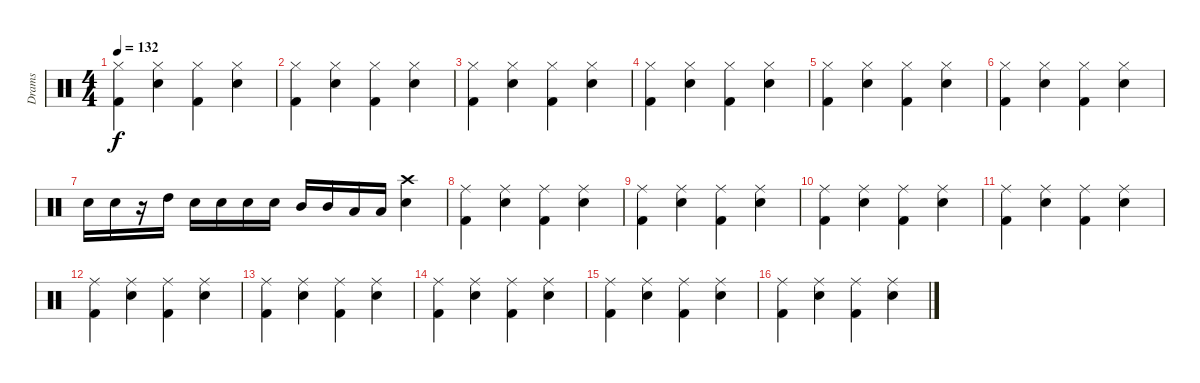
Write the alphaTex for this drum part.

\track ("Drams" "Drams") {instrument percussion}
\staff {score}
\articulation defaults
\ts (4 4)
\tempo 132
\clef neutral
\ks c
("Hi-Hat (closed)" "Kick (hit) 2").4{dy f} ("Hi-Hat (closed)" "Snare (hit) 2").4 ("Hi-Hat (closed)" "Kick (hit) 2").4 ("Hi-Hat (closed)" "Snare (hit) 2").4 |
("Hi-Hat (closed)" "Kick (hit) 2").4 ("Hi-Hat (closed)" "Snare (hit) 2").4 ("Hi-Hat (closed)" "Kick (hit) 2").4 ("Hi-Hat (closed)" "Snare (hit) 2").4 |
("Hi-Hat (closed)" "Kick (hit) 2").4 ("Hi-Hat (closed)" "Snare (hit) 2").4 ("Hi-Hat (closed)" "Kick (hit) 2").4 ("Hi-Hat (closed)" "Snare (hit) 2").4 |
("Hi-Hat (closed)" "Kick (hit) 2").4 ("Hi-Hat (closed)" "Snare (hit) 2").4 ("Hi-Hat (closed)" "Kick (hit) 2").4 ("Hi-Hat (closed)" "Snare (hit) 2").4 |
("Hi-Hat (closed)" "Kick (hit) 2").4 ("Hi-Hat (closed)" "Snare (hit) 2").4 ("Hi-Hat (closed)" "Kick (hit) 2").4 ("Hi-Hat (closed)" "Snare (hit) 2").4 |
("Hi-Hat (closed)" "Kick (hit) 2").4 ("Hi-Hat (closed)" "Snare (hit) 2").4 ("Hi-Hat (closed)" "Kick (hit) 2").4 ("Hi-Hat (closed)" "Snare (hit) 2").4 |
"Electric Snare (hit)".16 "Electric Snare (hit)".16 r.16 "High Tom (hit)".16 "Electric Snare (hit)".16 "Electric Snare (hit)".16 "Electric Snare (hit)".16 "Electric Snare (hit)".16 "Mid Tom (hit)".16 "Mid Tom (hit)".16 "Low Tom (hit)".16 "Low Tom (hit)".16 ("Crash high (hit)" "Snare (hit) 2").4 |
("Ride (middle)" "Kick (hit) 2").4 ("Ride (middle)" "Snare (hit) 2").4 ("Ride (middle)" "Kick (hit) 2").4 ("Ride (middle)" "Snare (hit) 2").4 |
("Ride (middle)" "Kick (hit) 2").4 ("Ride (middle)" "Snare (hit) 2").4 ("Ride (middle)" "Kick (hit) 2").4 ("Ride (middle)" "Snare (hit) 2").4 |
("Ride (middle)" "Kick (hit) 2").4 ("Ride (middle)" "Snare (hit) 2").4 ("Ride (middle)" "Kick (hit) 2").4 ("Ride (middle)" "Snare (hit) 2").4 |
("Ride (middle)" "Kick (hit) 2").4 ("Ride (middle)" "Snare (hit) 2").4 ("Ride (middle)" "Kick (hit) 2").4 ("Ride (middle)" "Snare (hit) 2").4 |
("Ride (middle)" "Kick (hit) 2").4 ("Ride (middle)" "Snare (hit) 2").4 ("Ride (middle)" "Kick (hit) 2").4 ("Ride (middle)" "Snare (hit) 2").4 |
("Ride (middle)" "Kick (hit) 2").4 ("Ride (middle)" "Snare (hit) 2").4 ("Ride (middle)" "Kick (hit) 2").4 ("Ride (middle)" "Snare (hit) 2").4 |
("Ride (middle)" "Kick (hit) 2").4 ("Ride (middle)" "Snare (hit) 2").4 ("Ride (middle)" "Kick (hit) 2").4 ("Ride (middle)" "Snare (hit) 2").4 |
("Ride (middle)" "Kick (hit) 2").4 ("Ride (middle)" "Snare (hit) 2").4 ("Ride (middle)" "Kick (hit) 2").4 ("Ride (middle)" "Snare (hit) 2").4 |
("Ride (middle)" "Kick (hit) 2").4 ("Ride (middle)" "Snare (hit) 2").4 ("Ride (middle)" "Kick (hit) 2").4 ("Ride (middle)" "Snare (hit) 2").4
